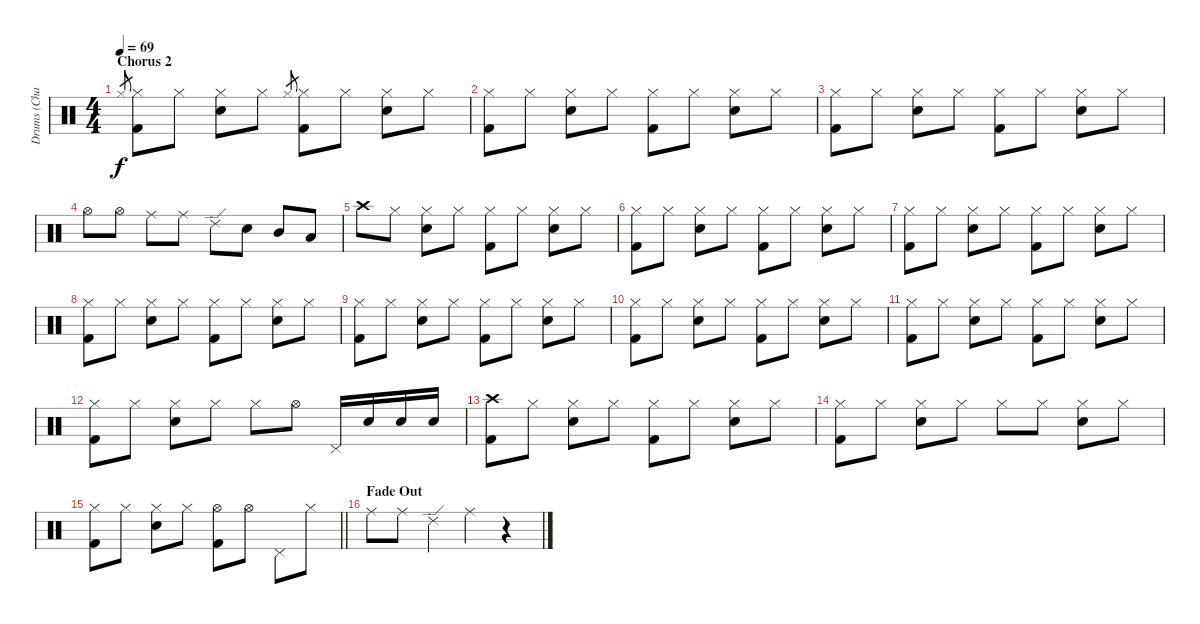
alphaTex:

\track ("Drums (Charlie)" "Drums (Cha") {instrument percussion}
\staff {score}
\articulation defaults
\ts (4 4)
\section ("" "Chorus 2")
\tempo 69
\clef neutral
\ks c "Hi-Hat (closed)".8{gr dy f}
("Hi-Hat (closed)" "Kick (hit) 2").8 "Hi-Hat (closed)".8 ("Hi-Hat (closed)" "Snare (hit) 2").8 "Hi-Hat (closed)".8 "Hi-Hat (closed)".8{gr} ("Hi-Hat (closed)" "Kick (hit) 2").8 "Hi-Hat (closed)".8 ("Hi-Hat (closed)" "Snare (hit) 2").8 "Hi-Hat (closed)".8 |
("Hi-Hat (closed)" "Kick (hit) 2").8 "Hi-Hat (closed)".8 ("Hi-Hat (closed)" "Snare (hit) 2").8 "Hi-Hat (closed)".8 ("Hi-Hat (closed)" "Kick (hit) 2").8 "Hi-Hat (closed)".8 ("Hi-Hat (closed)" "Snare (hit) 2").8 "Hi-Hat (closed)".8 |
("Hi-Hat (closed)" "Kick (hit) 2").8 "Hi-Hat (closed)".8 ("Hi-Hat (closed)" "Snare (hit) 2").8 "Hi-Hat (closed)".8 ("Hi-Hat (closed)" "Kick (hit) 2").8 "Hi-Hat (closed)".8 ("Hi-Hat (closed)" "Snare (hit) 2").8 "Hi-Hat (closed)".8 |
"Hi-Hat (open)".8 "Hi-Hat (open)".8 "Ride (middle)".8 "Ride (middle)".8 "Ride (edge) 2".8 "Snare (hit) 2".8 "Mid Tom (hit)".8 "Low Tom (hit)".8 |
"Crash high (hit)".8 "Hi-Hat (closed)".8 ("Hi-Hat (closed)" "Snare (hit) 2").8 "Hi-Hat (closed)".8 ("Hi-Hat (closed)" "Kick (hit) 2").8 "Hi-Hat (closed)".8 ("Hi-Hat (closed)" "Snare (hit) 2").8 "Hi-Hat (closed)".8 |
("Hi-Hat (closed)" "Kick (hit) 2").8 "Hi-Hat (closed)".8 ("Hi-Hat (closed)" "Snare (hit) 2").8 "Hi-Hat (closed)".8 ("Hi-Hat (closed)" "Kick (hit) 2").8 "Hi-Hat (closed)".8 ("Hi-Hat (closed)" "Snare (hit) 2").8 "Hi-Hat (closed)".8 |
("Hi-Hat (closed)" "Kick (hit) 2").8 "Hi-Hat (closed)".8 ("Hi-Hat (closed)" "Snare (hit) 2").8 "Hi-Hat (closed)".8 ("Hi-Hat (closed)" "Kick (hit) 2").8 "Hi-Hat (closed)".8 ("Hi-Hat (closed)" "Snare (hit) 2").8 "Hi-Hat (closed)".8 |
("Hi-Hat (closed)" "Kick (hit) 2").8 "Hi-Hat (closed)".8 ("Hi-Hat (closed)" "Snare (hit) 2").8 "Hi-Hat (closed)".8 ("Hi-Hat (closed)" "Kick (hit) 2").8 "Hi-Hat (closed)".8 ("Hi-Hat (closed)" "Snare (hit) 2").8 "Hi-Hat (closed)".8 |
("Hi-Hat (closed)" "Kick (hit) 2").8 "Hi-Hat (closed)".8 ("Hi-Hat (closed)" "Snare (hit) 2").8 "Hi-Hat (closed)".8 ("Hi-Hat (closed)" "Kick (hit) 2").8 "Hi-Hat (closed)".8 ("Hi-Hat (closed)" "Snare (hit) 2").8 "Hi-Hat (closed)".8 |
("Hi-Hat (closed)" "Kick (hit) 2").8 "Hi-Hat (closed)".8 ("Hi-Hat (closed)" "Snare (hit) 2").8 "Hi-Hat (closed)".8 ("Hi-Hat (closed)" "Kick (hit) 2").8 "Hi-Hat (closed)".8 ("Hi-Hat (closed)" "Snare (hit) 2").8 "Hi-Hat (closed)".8 |
("Hi-Hat (closed)" "Kick (hit) 2").8 "Hi-Hat (closed)".8 ("Hi-Hat (closed)" "Snare (hit) 2").8 "Hi-Hat (closed)".8 ("Hi-Hat (closed)" "Kick (hit) 2").8 "Hi-Hat (closed)".8 ("Hi-Hat (closed)" "Snare (hit) 2").8 "Hi-Hat (closed)".8 |
("Hi-Hat (closed)" "Kick (hit) 2").8 "Hi-Hat (closed)".8 ("Hi-Hat (closed)" "Snare (hit) 2").8 "Hi-Hat (closed)".8 "Hi-Hat (closed)".8 "Hi-Hat (open)".8 "Pedal Hi-Hat (hit)".16 "Snare (hit) 2".16 "Snare (hit) 2".16 "Snare (hit) 2".16 |
("Crash high (hit)" "Kick (hit) 2").8 "Hi-Hat (closed)".8 ("Hi-Hat (closed)" "Snare (hit) 2").8 "Hi-Hat (closed)".8 ("Hi-Hat (closed)" "Kick (hit) 2").8 "Hi-Hat (closed)".8 ("Hi-Hat (closed)" "Snare (hit) 2").8 "Hi-Hat (closed)".8 |
("Hi-Hat (closed)" "Kick (hit) 2").8 "Hi-Hat (closed)".8 ("Hi-Hat (closed)" "Snare (hit) 2").8 "Hi-Hat (closed)".8 "Hi-Hat (closed)".8 "Hi-Hat (closed)".8 ("Hi-Hat (closed)" "Snare (hit) 2").8 "Hi-Hat (closed)".8 |
\barLineRight lightlight
("Hi-Hat (closed)" "Kick (hit) 2").8 "Hi-Hat (closed)".8 ("Hi-Hat (closed)" "Snare (hit) 2").8 "Hi-Hat (closed)".8 ("Hi-Hat (open)" "Kick (hit) 2").8 "Hi-Hat (open)".8 "Pedal Hi-Hat (hit)".8 "Hi-Hat (closed)".8 |
\section ("" "Fade Out")
"Ride (middle)".8 "Ride (middle)".8 "Ride (edge) 2".4 "Ride (middle)".4 r.4
